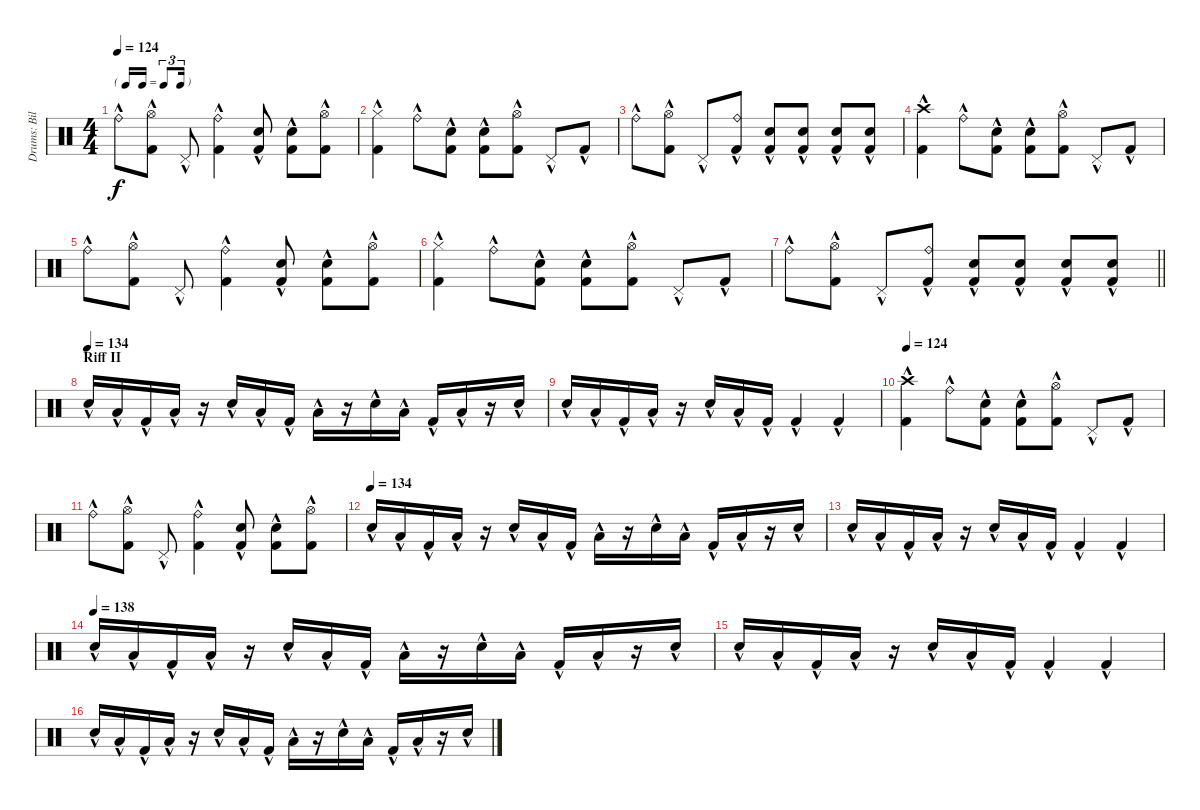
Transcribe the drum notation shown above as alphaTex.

\track ("Drums: Bill" "Drums: Bil") {instrument percussion}
\staff {score}
\articulation defaults
\ts (4 4)
\tf triplet16th
\tempo 124
\clef neutral
\ks c "Ride (bell)"{hac}.8{dy f}
("Hi-Hat (open)"{hac} "Kick (hit) 2"{hac}).8 "Pedal Hi-Hat (hit)"{hac}.8 ("Ride (bell)"{hac} "Kick (hit) 2"{hac}).4 ("Electric Snare (hit)"{hac} "Kick (hit) 2"{hac}).8 ("Electric Snare (hit)"{hac} "Kick (hit) 2"{hac}).8 ("Hi-Hat (open)"{hac} "Kick (hit) 2"{hac}).8 |
("Hi-Hat (closed)"{hac} "Kick (hit) 2"{hac}).4 "Ride (bell)"{hac}.8 ("Electric Snare (hit)"{hac} "Kick (hit) 2"{hac}).8 ("Electric Snare (hit)"{hac} "Kick (hit) 2"{hac}).8 ("Hi-Hat (open)"{hac} "Kick (hit) 2"{hac}).8 "Pedal Hi-Hat (hit)"{hac}.8 "Kick (hit) 2"{hac}.8 |
"Ride (bell)"{hac}.8 ("Hi-Hat (open)"{hac} "Kick (hit) 2"{hac}).8 "Pedal Hi-Hat (hit)"{hac}.8 ("Ride (bell)"{hac} "Kick (hit) 2"{hac}).8 ("Electric Snare (hit)"{hac} "Kick (hit) 2"{hac}).8 ("Electric Snare (hit)"{hac} "Kick (hit) 2"{hac}).8 ("Electric Snare (hit)"{hac} "Kick (hit) 2"{hac}).8 ("Electric Snare (hit)"{hac} "Kick (hit) 2"{hac}).8 |
("Crash high (hit)"{hac} "Kick (hit) 2"{hac}).4 "Ride (bell)"{hac}.8 ("Electric Snare (hit)"{hac} "Kick (hit) 2"{hac}).8 ("Electric Snare (hit)"{hac} "Kick (hit) 2"{hac}).8 ("Hi-Hat (open)"{hac} "Kick (hit) 2"{hac}).8 "Pedal Hi-Hat (hit)"{hac}.8 "Kick (hit) 2"{hac}.8 |
"Ride (bell)"{hac}.8 ("Hi-Hat (open)"{hac} "Kick (hit) 2"{hac}).8 "Pedal Hi-Hat (hit)"{hac}.8 ("Ride (bell)"{hac} "Kick (hit) 2"{hac}).4 ("Electric Snare (hit)"{hac} "Kick (hit) 2"{hac}).8 ("Electric Snare (hit)"{hac} "Kick (hit) 2"{hac}).8 ("Hi-Hat (open)"{hac} "Kick (hit) 2"{hac}).8 |
("Hi-Hat (closed)"{hac} "Kick (hit) 2"{hac}).4 "Ride (bell)"{hac}.8 ("Electric Snare (hit)"{hac} "Kick (hit) 2"{hac}).8 ("Electric Snare (hit)"{hac} "Kick (hit) 2"{hac}).8 ("Hi-Hat (open)"{hac} "Kick (hit) 2"{hac}).8 "Pedal Hi-Hat (hit)"{hac}.8 "Kick (hit) 2"{hac}.8 |
\barLineRight lightlight "Ride (bell)"{hac}.8
("Hi-Hat (open)"{hac} "Kick (hit) 2"{hac}).8 "Pedal Hi-Hat (hit)"{hac}.8 ("Ride (bell)"{hac} "Kick (hit) 2"{hac}).8 ("Electric Snare (hit)"{hac} "Kick (hit) 2"{hac}).8 ("Electric Snare (hit)"{hac} "Kick (hit) 2"{hac}).8 ("Electric Snare (hit)"{hac} "Kick (hit) 2"{hac}).8 ("Electric Snare (hit)"{hac} "Kick (hit) 2"{hac}).8 |
\section ("" "Riff II")
\tempo (134)
"Electric Snare (hit)"{hac}.16 "Low Tom (hit)"{hac}.16 "Kick (hit) 2"{hac}.16 "Low Tom (hit)"{hac}.16 r.16 "Electric Snare (hit)"{hac}.16 "Low Tom (hit)"{hac}.16 "Kick (hit) 2"{hac}.16 "Low Tom (hit)"{hac}.16 r.16 "Electric Snare (hit)"{hac}.16 "Low Tom (hit)"{hac}.16 "Kick (hit) 2"{hac}.16 "Low Tom (hit)"{hac}.16 r.16 "Snare (hit) 2"{hac}.16 |
"Electric Snare (hit)"{hac}.16 "Low Tom (hit)"{hac}.16 "Kick (hit) 2"{hac}.16 "Low Tom (hit)"{hac}.16 r.16 "Electric Snare (hit)"{hac}.16 "Low Tom (hit)"{hac}.16 "Kick (hit) 2"{hac}.16 "Kick (hit) 2"{hac}.4 "Kick (hit) 2"{hac}.4 |
\tempo 124
("Crash high (hit)"{hac} "Kick (hit) 2"{hac}).4 "Ride (bell)"{hac}.8 ("Electric Snare (hit)"{hac} "Kick (hit) 2"{hac}).8 ("Electric Snare (hit)"{hac} "Kick (hit) 2"{hac}).8 ("Hi-Hat (open)"{hac} "Kick (hit) 2"{hac}).8 "Pedal Hi-Hat (hit)"{hac}.8 "Kick (hit) 2"{hac}.8 |
"Ride (bell)"{hac}.8 ("Hi-Hat (open)"{hac} "Kick (hit) 2"{hac}).8 "Pedal Hi-Hat (hit)"{hac}.8 ("Ride (bell)"{hac} "Kick (hit) 2"{hac}).4 ("Electric Snare (hit)"{hac} "Kick (hit) 2"{hac}).8 ("Electric Snare (hit)"{hac} "Kick (hit) 2"{hac}).8 ("Hi-Hat (open)"{hac} "Kick (hit) 2"{hac}).8 |
\tempo (134)
"Electric Snare (hit)"{hac}.16 "Low Tom (hit)"{hac}.16 "Kick (hit) 2"{hac}.16 "Low Tom (hit)"{hac}.16 r.16 "Electric Snare (hit)"{hac}.16 "Low Tom (hit)"{hac}.16 "Kick (hit) 2"{hac}.16 "Low Tom (hit)"{hac}.16 r.16 "Electric Snare (hit)"{hac}.16 "Low Tom (hit)"{hac}.16 "Kick (hit) 2"{hac}.16 "Low Tom (hit)"{hac}.16 r.16 "Snare (hit) 2"{hac}.16 |
"Electric Snare (hit)"{hac}.16 "Low Tom (hit)"{hac}.16 "Kick (hit) 2"{hac}.16 "Low Tom (hit)"{hac}.16 r.16 "Electric Snare (hit)"{hac}.16 "Low Tom (hit)"{hac}.16 "Kick (hit) 2"{hac}.16 "Kick (hit) 2"{hac}.4 "Kick (hit) 2"{hac}.4 |
\tempo (138)
"Electric Snare (hit)"{hac}.16 "Low Tom (hit)"{hac}.16 "Kick (hit) 2"{hac}.16 "Low Tom (hit)"{hac}.16 r.16 "Electric Snare (hit)"{hac}.16 "Low Tom (hit)"{hac}.16 "Kick (hit) 2"{hac}.16 "Low Tom (hit)"{hac}.16 r.16 "Electric Snare (hit)"{hac}.16 "Low Tom (hit)"{hac}.16 "Kick (hit) 2"{hac}.16 "Low Tom (hit)"{hac}.16 r.16 "Snare (hit) 2"{hac}.16 |
"Electric Snare (hit)"{hac}.16 "Low Tom (hit)"{hac}.16 "Kick (hit) 2"{hac}.16 "Low Tom (hit)"{hac}.16 r.16 "Electric Snare (hit)"{hac}.16 "Low Tom (hit)"{hac}.16 "Kick (hit) 2"{hac}.16 "Kick (hit) 2"{hac}.4 "Kick (hit) 2"{hac}.4 |
"Electric Snare (hit)"{hac}.16 "Low Tom (hit)"{hac}.16 "Kick (hit) 2"{hac}.16 "Low Tom (hit)"{hac}.16 r.16 "Electric Snare (hit)"{hac}.16 "Low Tom (hit)"{hac}.16 "Kick (hit) 2"{hac}.16 "Low Tom (hit)"{hac}.16 r.16 "Electric Snare (hit)"{hac}.16 "Low Tom (hit)"{hac}.16 "Kick (hit) 2"{hac}.16 "Low Tom (hit)"{hac}.16 r.16 "Snare (hit) 2"{hac}.16
